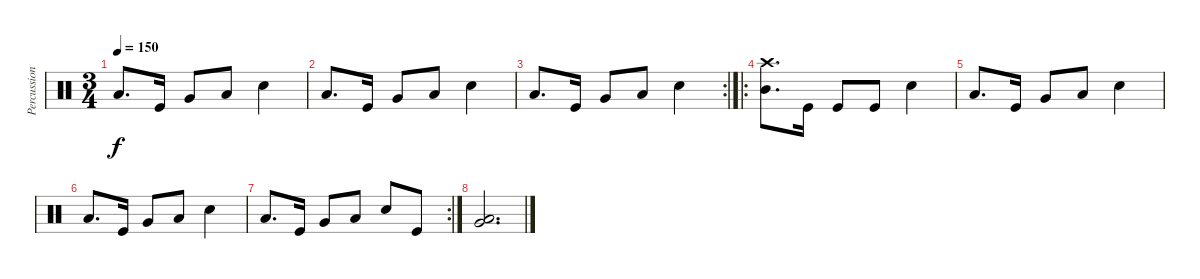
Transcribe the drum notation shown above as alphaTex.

\track ("Percussion" "Percussion") {instrument percussion}
\staff {score}
\articulation defaults
\ts (3 4)
\tempo 150
\clef neutral
\ks c "Low Tom (hit)".8{d dy f} "Kick (hit)".16 "Very Low Tom (hit)".8 "Low Floor Tom (hit)".8 "Snare (hit) 2".4
|
"Low Tom (hit)".8{d} "Kick (hit)".16 "Very Low Tom (hit)".8 "Low Floor Tom (hit)".8 "Snare (hit) 2".4 |
\rc 2 "Low Tom (hit)".8{d} "Kick (hit)".16 "Very Low Tom (hit)".8 "Low Floor Tom (hit)".8 "Snare (hit) 2".4
|
\ro
("Crash high (hit)" "Mid Tom (hit)").8{d} "Kick (hit)".16 "Kick (hit)".8 "Kick (hit)".8 "Snare (hit) 2".4 |
"Low Tom (hit)".8{d} "Kick (hit)".16 "Very Low Tom (hit)".8 "Low Floor Tom (hit)".8 "Snare (hit) 2".4 |
"Low Tom (hit)".8{d} "Kick (hit)".16 "Very Low Tom (hit)".8 "Low Floor Tom (hit)".8 "Snare (hit) 2".4 |
\rc 2 "Low Tom (hit)".8{d} "Kick (hit)".16 "Very Low Tom (hit)".8 "Low Floor Tom (hit)".8 "Snare (hit) 2".8 "Kick (hit)".8
|
("Low Floor Tom (hit)" "Very Low Tom (hit)").2{d}
